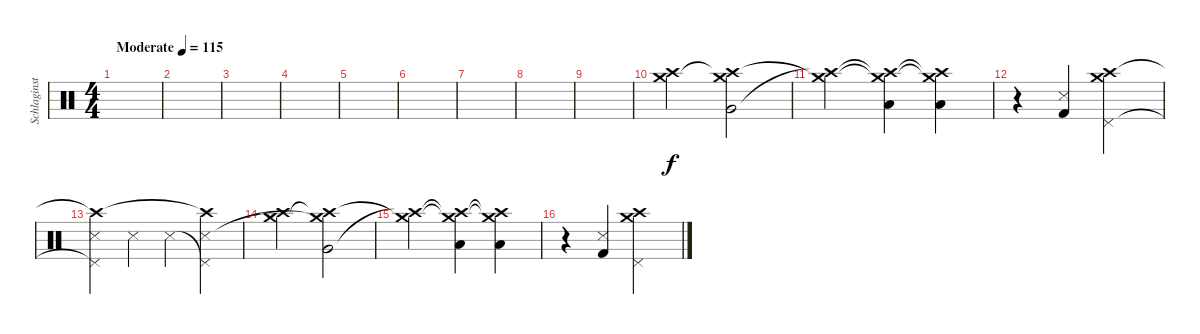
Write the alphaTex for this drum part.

\track ("Schlaginstrumente - Auswahl" "Schlaginst") {instrument percussion}
\staff {score}
\articulation defaults
\ts (4 4)
\tempo (115 "Moderate")
\clef neutral
\ks c
|
|
|
|
|
|
|
|
|
("Crash high (hit)" "Crash medium (hit)").2 ("Very Low Tom (hit)" "Crash high (hit)"{t} "Crash medium (hit)").2 |
("Crash high (hit)"{t} "Crash medium (hit)"{t}).2 ("Crash high (hit)"{t} "Crash medium (hit)"{t} "Low Floor Tom (hit)").4 ("Crash high (hit)"{t} "Crash medium (hit)"{t} "Low Floor Tom (hit)").4 |
r.4 ("Kick (hit) 2" "Snare (side stick) 3").4 ("Pedal Hi-Hat (hit)" "Crash high (hit)" "Crash medium (hit)").2 |
("Pedal Hi-Hat (hit)"{t} "Crash high (hit)"{t} "Snare (side stick) 3").4 "Snare (side stick) 3".4 "Snare (side stick) 3".4 ("Pedal Hi-Hat (hit)"{t} "Crash high (hit)"{t} "Snare (side stick) 3").4 |
("Crash high (hit)" "Crash medium (hit)").2 ("Very Low Tom (hit)" "Crash high (hit)"{t} "Crash medium (hit)"{t}).2 |
("Crash high (hit)"{t} "Crash medium (hit)"{t}).2 ("Crash high (hit)"{t} "Crash medium (hit)"{t} "Low Floor Tom (hit)").4 ("Crash high (hit)"{t} "Crash medium (hit)"{t} "Low Floor Tom (hit)").4 |
r.4 ("Kick (hit) 2" "Snare (side stick) 3").4 ("Pedal Hi-Hat (hit)" "Crash high (hit)" "Crash medium (hit)").2
